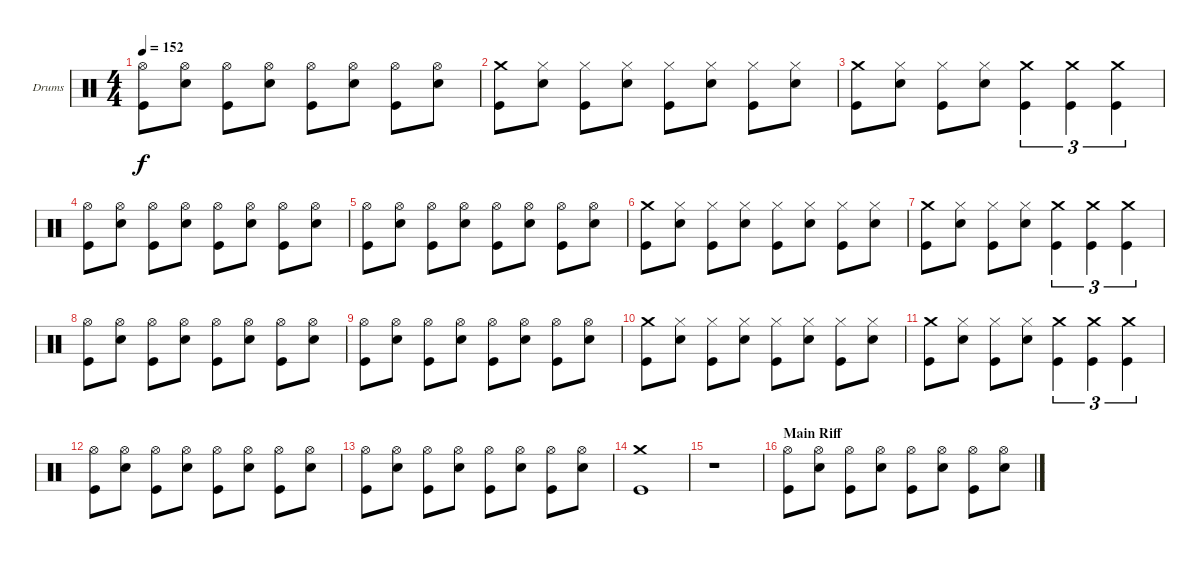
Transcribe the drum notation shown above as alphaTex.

\bracketExtendMode groupsimilarinstruments
\firstSystemTrackNameOrientation horizontal
\otherSystemsTrackNameOrientation horizontal
\track ("Drumkit" "Drums") {instrument percussion}
\staff {score}
\articulation defaults
\ts (4 4)
\tempo 152
\clef neutral
\ks c
("Hi-Hat (open)" "Kick (hit)").8{dy f} ("Hi-Hat (open)" "Snare (hit) 2").8 ("Hi-Hat (open)" "Kick (hit)").8 ("Hi-Hat (open)" "Snare (hit) 2").8 ("Hi-Hat (open)" "Kick (hit)").8 ("Hi-Hat (open)" "Snare (hit) 2").8 ("Hi-Hat (open)" "Kick (hit)").8 ("Hi-Hat (open)" "Snare (hit) 2").8 |
("Crash medium (hit)" "Kick (hit)").8 ("Hi-Hat (closed)" "Snare (hit) 2").8 ("Hi-Hat (closed)" "Kick (hit)").8 ("Hi-Hat (closed)" "Snare (hit) 2").8 ("Hi-Hat (closed)" "Kick (hit)").8 ("Hi-Hat (closed)" "Snare (hit) 2").8 ("Hi-Hat (closed)" "Kick (hit)").8 ("Hi-Hat (closed)" "Snare (hit) 2").8 |
("Crash medium (hit)" "Kick (hit)").8 ("Hi-Hat (closed)" "Snare (hit) 2").8 ("Hi-Hat (closed)" "Kick (hit)").8 ("Hi-Hat (closed)" "Snare (hit) 2").8 ("Crash medium (hit)" "Kick (hit)").4{tu (3 2)} ("Crash medium (hit)" "Kick (hit)").4{tu (3 2)} ("Crash medium (hit)" "Kick (hit)").4{tu (3 2)} |
("Hi-Hat (open)" "Kick (hit)").8 ("Hi-Hat (open)" "Snare (hit) 2").8 ("Hi-Hat (open)" "Kick (hit)").8 ("Hi-Hat (open)" "Snare (hit) 2").8 ("Hi-Hat (open)" "Kick (hit)").8 ("Hi-Hat (open)" "Snare (hit) 2").8 ("Hi-Hat (open)" "Kick (hit)").8 ("Hi-Hat (open)" "Snare (hit) 2").8 |
("Hi-Hat (open)" "Kick (hit)").8 ("Hi-Hat (open)" "Snare (hit) 2").8 ("Hi-Hat (open)" "Kick (hit)").8 ("Hi-Hat (open)" "Snare (hit) 2").8 ("Hi-Hat (open)" "Kick (hit)").8 ("Hi-Hat (open)" "Snare (hit) 2").8 ("Hi-Hat (open)" "Kick (hit)").8 ("Hi-Hat (open)" "Snare (hit) 2").8 |
("Crash medium (hit)" "Kick (hit)").8 ("Hi-Hat (closed)" "Snare (hit) 2").8 ("Hi-Hat (closed)" "Kick (hit)").8 ("Hi-Hat (closed)" "Snare (hit) 2").8 ("Hi-Hat (closed)" "Kick (hit)").8 ("Hi-Hat (closed)" "Snare (hit) 2").8 ("Hi-Hat (closed)" "Kick (hit)").8 ("Hi-Hat (closed)" "Snare (hit) 2").8 |
("Crash medium (hit)" "Kick (hit)").8 ("Hi-Hat (closed)" "Snare (hit) 2").8 ("Hi-Hat (closed)" "Kick (hit)").8 ("Hi-Hat (closed)" "Snare (hit) 2").8 ("Crash medium (hit)" "Kick (hit)").4{tu (3 2)} ("Crash medium (hit)" "Kick (hit)").4{tu (3 2)} ("Crash medium (hit)" "Kick (hit)").4{tu (3 2)} |
("Hi-Hat (open)" "Kick (hit)").8 ("Hi-Hat (open)" "Snare (hit) 2").8 ("Hi-Hat (open)" "Kick (hit)").8 ("Hi-Hat (open)" "Snare (hit) 2").8 ("Hi-Hat (open)" "Kick (hit)").8 ("Hi-Hat (open)" "Snare (hit) 2").8 ("Hi-Hat (open)" "Kick (hit)").8 ("Hi-Hat (open)" "Snare (hit) 2").8 |
("Hi-Hat (open)" "Kick (hit)").8 ("Hi-Hat (open)" "Snare (hit) 2").8 ("Hi-Hat (open)" "Kick (hit)").8 ("Hi-Hat (open)" "Snare (hit) 2").8 ("Hi-Hat (open)" "Kick (hit)").8 ("Hi-Hat (open)" "Snare (hit) 2").8 ("Hi-Hat (open)" "Kick (hit)").8 ("Hi-Hat (open)" "Snare (hit) 2").8 |
("Crash medium (hit)" "Kick (hit)").8 ("Hi-Hat (closed)" "Snare (hit) 2").8 ("Hi-Hat (closed)" "Kick (hit)").8 ("Hi-Hat (closed)" "Snare (hit) 2").8 ("Hi-Hat (closed)" "Kick (hit)").8 ("Hi-Hat (closed)" "Snare (hit) 2").8 ("Hi-Hat (closed)" "Kick (hit)").8 ("Hi-Hat (closed)" "Snare (hit) 2").8 |
("Crash medium (hit)" "Kick (hit)").8 ("Hi-Hat (closed)" "Snare (hit) 2").8 ("Hi-Hat (closed)" "Kick (hit)").8 ("Hi-Hat (closed)" "Snare (hit) 2").8 ("Crash medium (hit)" "Kick (hit)").4{tu (3 2)} ("Crash medium (hit)" "Kick (hit)").4{tu (3 2)} ("Crash medium (hit)" "Kick (hit)").4{tu (3 2)} |
("Hi-Hat (open)" "Kick (hit)").8 ("Hi-Hat (open)" "Snare (hit) 2").8 ("Hi-Hat (open)" "Kick (hit)").8 ("Hi-Hat (open)" "Snare (hit) 2").8 ("Hi-Hat (open)" "Kick (hit)").8 ("Hi-Hat (open)" "Snare (hit) 2").8 ("Hi-Hat (open)" "Kick (hit)").8 ("Hi-Hat (open)" "Snare (hit) 2").8 |
("Hi-Hat (open)" "Kick (hit)").8 ("Hi-Hat (open)" "Snare (hit) 2").8 ("Hi-Hat (open)" "Kick (hit)").8 ("Hi-Hat (open)" "Snare (hit) 2").8 ("Hi-Hat (open)" "Kick (hit)").8 ("Hi-Hat (open)" "Snare (hit) 2").8 ("Hi-Hat (open)" "Kick (hit)").8 ("Hi-Hat (open)" "Snare (hit) 2").8 |
("Crash medium (hit)" "Kick (hit)").1 |
r.1 |
\section ("" "Main Riff")
("Hi-Hat (open)" "Kick (hit)").8 ("Hi-Hat (open)" "Snare (hit) 2").8 ("Hi-Hat (open)" "Kick (hit)").8 ("Hi-Hat (open)" "Snare (hit) 2").8 ("Hi-Hat (open)" "Kick (hit)").8 ("Hi-Hat (open)" "Snare (hit) 2").8 ("Hi-Hat (open)" "Kick (hit)").8 ("Hi-Hat (open)" "Snare (hit) 2").8
